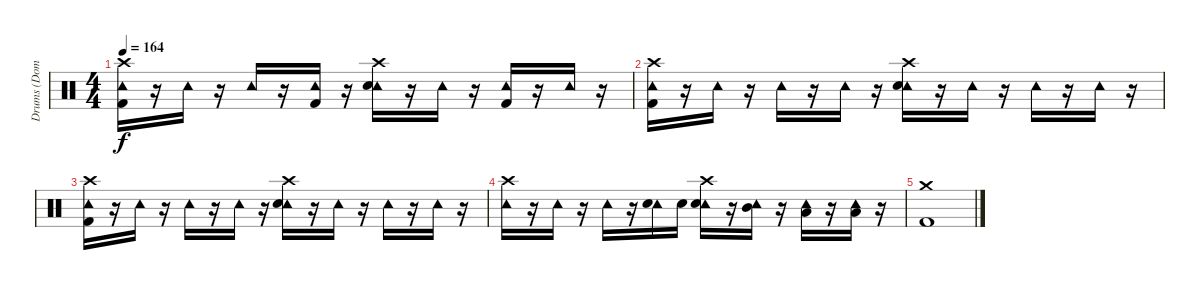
\track ("Drums (Dominik)" "Drums (Dom") {instrument percussion}
\staff {score}
\articulation defaults
\ts (4 4)
\tempo 164
\clef neutral
\ks c
("Crash high (hit)" "Tambourine (hit)" "Kick (hit) 2").16{dy f} r.16 "Tambourine (hit)".16 r.16 "Tambourine (hit)".16 r.16 ("Tambourine (hit)" "Kick (hit) 2").16 r.16 ("Crash high (hit)" "Tambourine (hit)" "Electric Snare (hit)").16 r.16 "Tambourine (hit)".16 r.16 ("Tambourine (hit)" "Kick (hit) 2").16 r.16 "Tambourine (hit)".16 r.16 |
("Crash high (hit)" "Tambourine (hit)" "Kick (hit) 2").16 r.16 "Tambourine (hit)".16 r.16 "Tambourine (hit)".16 r.16 "Tambourine (hit)".16 r.16 ("Crash high (hit)" "Tambourine (hit)" "Electric Snare (hit)").16 r.16 "Tambourine (hit)".16 r.16 "Tambourine (hit)".16 r.16 "Tambourine (hit)".16 r.16 |
("Crash high (hit)" "Tambourine (hit)" "Kick (hit) 2").16 r.16 "Tambourine (hit)".16 r.16 "Tambourine (hit)".16 r.16 "Tambourine (hit)".16 r.16 ("Crash high (hit)" "Tambourine (hit)" "Electric Snare (hit)").16 r.16 "Tambourine (hit)".16 r.16 "Tambourine (hit)".16 r.16 "Tambourine (hit)".16 r.16 |
("Crash high (hit)" "Tambourine (hit)").16 r.16 "Tambourine (hit)".16 r.16 "Tambourine (hit)".16 r.16 ("Tambourine (hit)" "Electric Snare (hit)").16 "Electric Snare (hit)".16 ("Crash high (hit)" "Tambourine (hit)" "Electric Snare (hit)").16 r.16 ("Tambourine (hit)" "Mid Tom (hit)").16 r.16 ("Tambourine (hit)" "Low Tom (hit)").16 r.16 ("Tambourine (hit)" "Low Floor Tom (hit)").16 r.16 |
("Crash medium (hit)" "Kick (hit) 2").1
